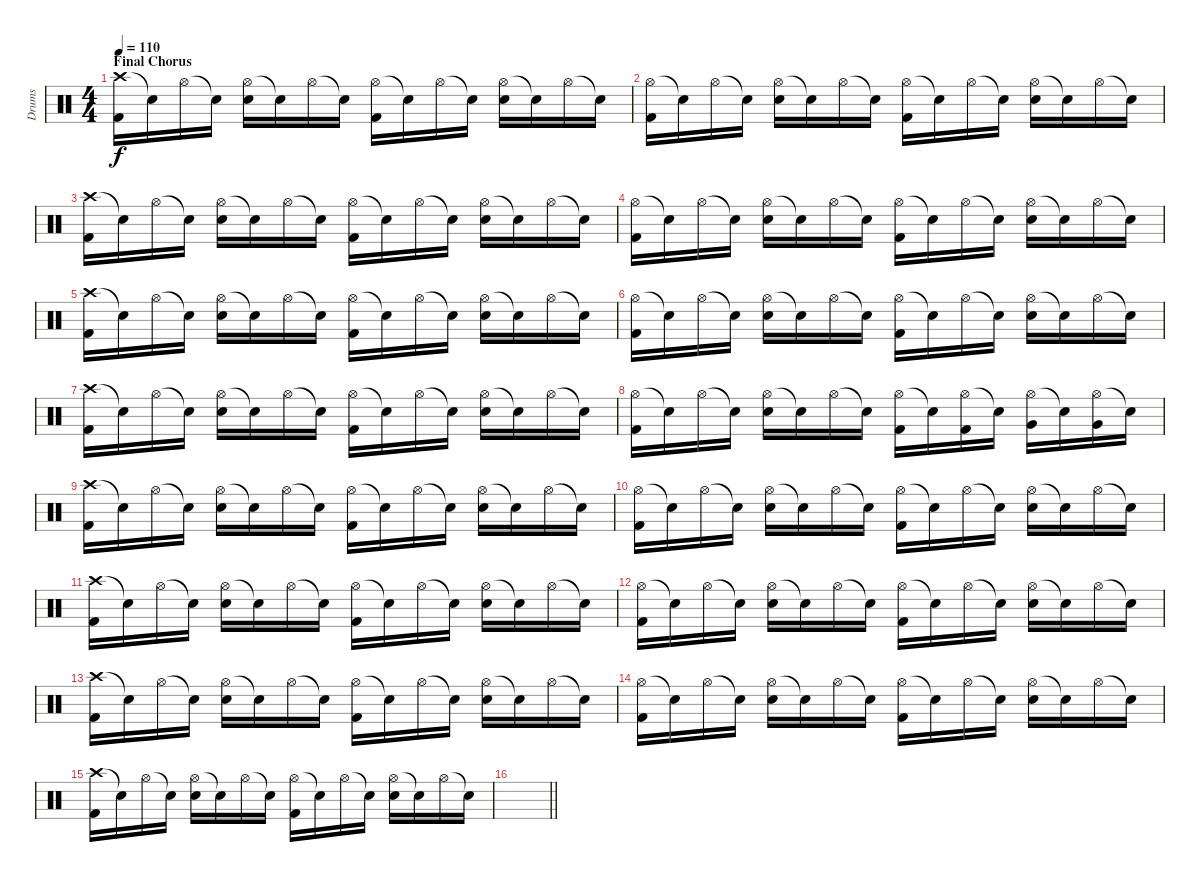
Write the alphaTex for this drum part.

\track ("Drums" "Drums") {instrument percussion}
\staff {score}
\articulation defaults
\ts (4 4)
\section ("" "Final Chorus")
\tempo 110
\clef neutral
\ks c
("Crash high (hit)" "Kick (hit) 2").16{dy f} "Snare (hit)"{t}.16 "Hi-Hat (open)".16 "Snare (hit)"{t}.16 ("Hi-Hat (open)" "Electric Snare (hit)").16 "Snare (hit)"{t}.16 "Hi-Hat (open)".16 "Snare (hit)"{t}.16 ("Hi-Hat (open)" "Kick (hit) 2").16 "Snare (hit)"{t}.16 "Hi-Hat (open)".16 "Snare (hit)"{t}.16 ("Hi-Hat (open)" "Electric Snare (hit)").16 "Snare (hit)"{t}.16 "Hi-Hat (open)".16 "Snare (hit)"{t}.16 |
("Hi-Hat (open)" "Kick (hit) 2").16 "Snare (hit)"{t}.16 "Hi-Hat (open)".16 "Snare (hit)"{t}.16 ("Hi-Hat (open)" "Electric Snare (hit)").16 "Snare (hit)"{t}.16 "Hi-Hat (open)".16 "Snare (hit)"{t}.16 ("Hi-Hat (open)" "Kick (hit) 2").16 "Snare (hit)"{t}.16 "Hi-Hat (open)".16 "Snare (hit)"{t}.16 ("Hi-Hat (open)" "Electric Snare (hit)").16 "Snare (hit)"{t}.16 "Hi-Hat (open)".16 "Snare (hit)"{t}.16 |
("Crash high (hit)" "Kick (hit) 2").16 "Snare (hit)"{t}.16 "Hi-Hat (open)".16 "Snare (hit)"{t}.16 ("Hi-Hat (open)" "Electric Snare (hit)").16 "Snare (hit)"{t}.16 "Hi-Hat (open)".16 "Snare (hit)"{t}.16 ("Hi-Hat (open)" "Kick (hit) 2").16 "Snare (hit)"{t}.16 "Hi-Hat (open)".16 "Snare (hit)"{t}.16 ("Hi-Hat (open)" "Electric Snare (hit)").16 "Snare (hit)"{t}.16 "Hi-Hat (open)".16 "Snare (hit)"{t}.16 |
("Hi-Hat (open)" "Kick (hit) 2").16 "Snare (hit)"{t}.16 "Hi-Hat (open)".16 "Snare (hit)"{t}.16 ("Hi-Hat (open)" "Electric Snare (hit)").16 "Snare (hit)"{t}.16 "Hi-Hat (open)".16 "Snare (hit)"{t}.16 ("Hi-Hat (open)" "Kick (hit) 2").16 "Snare (hit)"{t}.16 "Hi-Hat (open)".16 "Snare (hit)"{t}.16 ("Hi-Hat (open)" "Electric Snare (hit)").16 "Snare (hit)"{t}.16 "Hi-Hat (open)".16 "Snare (hit)"{t}.16 |
("Crash high (hit)" "Kick (hit) 2").16 "Snare (hit)"{t}.16 "Hi-Hat (open)".16 "Snare (hit)"{t}.16 ("Hi-Hat (open)" "Electric Snare (hit)").16 "Snare (hit)"{t}.16 "Hi-Hat (open)".16 "Snare (hit)"{t}.16 ("Hi-Hat (open)" "Kick (hit) 2").16 "Snare (hit)"{t}.16 "Hi-Hat (open)".16 "Snare (hit)"{t}.16 ("Hi-Hat (open)" "Electric Snare (hit)").16 "Snare (hit)"{t}.16 "Hi-Hat (open)".16 "Snare (hit)"{t}.16 |
("Hi-Hat (open)" "Kick (hit) 2").16 "Snare (hit)"{t}.16 "Hi-Hat (open)".16 "Snare (hit)"{t}.16 ("Hi-Hat (open)" "Electric Snare (hit)").16 "Snare (hit)"{t}.16 "Hi-Hat (open)".16 "Snare (hit)"{t}.16 ("Hi-Hat (open)" "Kick (hit) 2").16 "Snare (hit)"{t}.16 "Hi-Hat (open)".16 "Snare (hit)"{t}.16 ("Hi-Hat (open)" "Electric Snare (hit)").16 "Snare (hit)"{t}.16 "Hi-Hat (open)".16 "Snare (hit)"{t}.16 |
("Crash high (hit)" "Kick (hit) 2").16 "Snare (hit)"{t}.16 "Hi-Hat (open)".16 "Snare (hit)"{t}.16 ("Hi-Hat (open)" "Electric Snare (hit)").16 "Snare (hit)"{t}.16 "Hi-Hat (open)".16 "Snare (hit)"{t}.16 ("Hi-Hat (open)" "Kick (hit) 2").16 "Snare (hit)"{t}.16 "Hi-Hat (open)".16 "Snare (hit)"{t}.16 ("Hi-Hat (open)" "Electric Snare (hit)").16 "Snare (hit)"{t}.16 "Hi-Hat (open)".16 "Snare (hit)"{t}.16 |
("Hi-Hat (open)" "Kick (hit) 2").16 "Snare (hit)"{t}.16 "Hi-Hat (open)".16 "Snare (hit)"{t}.16 ("Hi-Hat (open)" "Electric Snare (hit)").16 "Snare (hit)"{t}.16 "Hi-Hat (open)".16 "Snare (hit)"{t}.16 ("Hi-Hat (open)" "Kick (hit) 2").16 "Snare (hit)"{t}.16 ("Hi-Hat (open)" "Kick (hit) 2").16 "Snare (hit)"{t}.16 ("Hi-Hat (open)" "Very Low Tom (hit)").16 "Snare (hit)"{t}.16 ("Hi-Hat (open)" "Very Low Tom (hit)").16 "Snare (hit)"{t}.16 |
("Crash high (hit)" "Kick (hit) 2").16 "Snare (hit)"{t}.16 "Hi-Hat (open)".16 "Snare (hit)"{t}.16 ("Hi-Hat (open)" "Electric Snare (hit)").16 "Snare (hit)"{t}.16 "Hi-Hat (open)".16 "Snare (hit)"{t}.16 ("Hi-Hat (open)" "Kick (hit) 2").16 "Snare (hit)"{t}.16 "Hi-Hat (open)".16 "Snare (hit)"{t}.16 ("Hi-Hat (open)" "Electric Snare (hit)").16 "Snare (hit)"{t}.16 "Hi-Hat (open)".16 "Snare (hit)"{t}.16 |
("Hi-Hat (open)" "Kick (hit) 2").16 "Snare (hit)"{t}.16 "Hi-Hat (open)".16 "Snare (hit)"{t}.16 ("Hi-Hat (open)" "Electric Snare (hit)").16 "Snare (hit)"{t}.16 "Hi-Hat (open)".16 "Snare (hit)"{t}.16 ("Hi-Hat (open)" "Kick (hit) 2").16 "Snare (hit)"{t}.16 "Hi-Hat (open)".16 "Snare (hit)"{t}.16 ("Hi-Hat (open)" "Electric Snare (hit)").16 "Snare (hit)"{t}.16 "Hi-Hat (open)".16 "Snare (hit)"{t}.16 |
("Crash high (hit)" "Kick (hit) 2").16 "Snare (hit)"{t}.16 "Hi-Hat (open)".16 "Snare (hit)"{t}.16 ("Hi-Hat (open)" "Electric Snare (hit)").16 "Snare (hit)"{t}.16 "Hi-Hat (open)".16 "Snare (hit)"{t}.16 ("Hi-Hat (open)" "Kick (hit) 2").16 "Snare (hit)"{t}.16 "Hi-Hat (open)".16 "Snare (hit)"{t}.16 ("Hi-Hat (open)" "Electric Snare (hit)").16 "Snare (hit)"{t}.16 "Hi-Hat (open)".16 "Snare (hit)"{t}.16 |
("Hi-Hat (open)" "Kick (hit) 2").16 "Snare (hit)"{t}.16 "Hi-Hat (open)".16 "Snare (hit)"{t}.16 ("Hi-Hat (open)" "Electric Snare (hit)").16 "Snare (hit)"{t}.16 "Hi-Hat (open)".16 "Snare (hit)"{t}.16 ("Hi-Hat (open)" "Kick (hit) 2").16 "Snare (hit)"{t}.16 "Hi-Hat (open)".16 "Snare (hit)"{t}.16 ("Hi-Hat (open)" "Electric Snare (hit)").16 "Snare (hit)"{t}.16 "Hi-Hat (open)".16 "Snare (hit)"{t}.16 |
("Crash high (hit)" "Kick (hit) 2").16 "Snare (hit)"{t}.16 "Hi-Hat (open)".16 "Snare (hit)"{t}.16 ("Hi-Hat (open)" "Electric Snare (hit)").16 "Snare (hit)"{t}.16 "Hi-Hat (open)".16 "Snare (hit)"{t}.16 ("Hi-Hat (open)" "Kick (hit) 2").16 "Snare (hit)"{t}.16 "Hi-Hat (open)".16 "Snare (hit)"{t}.16 ("Hi-Hat (open)" "Electric Snare (hit)").16 "Snare (hit)"{t}.16 "Hi-Hat (open)".16 "Snare (hit)"{t}.16 |
("Hi-Hat (open)" "Kick (hit) 2").16 "Snare (hit)"{t}.16 "Hi-Hat (open)".16 "Snare (hit)"{t}.16 ("Hi-Hat (open)" "Electric Snare (hit)").16 "Snare (hit)"{t}.16 "Hi-Hat (open)".16 "Snare (hit)"{t}.16 ("Hi-Hat (open)" "Kick (hit) 2").16 "Snare (hit)"{t}.16 "Hi-Hat (open)".16 "Snare (hit)"{t}.16 ("Hi-Hat (open)" "Electric Snare (hit)").16 "Snare (hit)"{t}.16 "Hi-Hat (open)".16 "Snare (hit)"{t}.16 |
("Crash high (hit)" "Kick (hit) 2").16 "Snare (hit)"{t}.16 "Hi-Hat (open)".16 "Snare (hit)"{t}.16 ("Hi-Hat (open)" "Electric Snare (hit)").16 "Snare (hit)"{t}.16 "Hi-Hat (open)".16 "Snare (hit)"{t}.16 ("Hi-Hat (open)" "Kick (hit) 2").16 "Snare (hit)"{t}.16 "Hi-Hat (open)".16 "Snare (hit)"{t}.16 ("Hi-Hat (open)" "Electric Snare (hit)").16 "Snare (hit)"{t}.16 "Hi-Hat (open)".16 "Snare (hit)"{t}.16 |
\barLineRight lightlight
